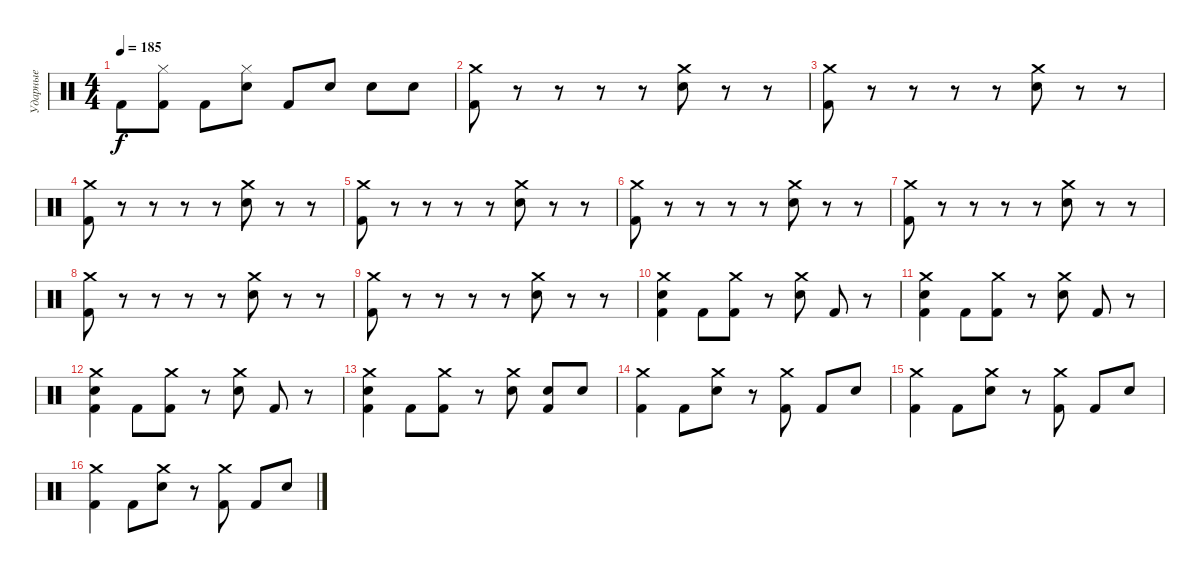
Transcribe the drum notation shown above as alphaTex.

\track ("Ударные" "Ударные") {instrument percussion}
\staff {score}
\articulation defaults
\ts (4 4)
\tempo 185
\clef neutral
\ks c "Kick (hit) 2".8{dy f}
("Hi-Hat (closed)" "Kick (hit) 2"{t}).8 "Kick (hit) 2".8 ("Hi-Hat (closed)" "Electric Snare (hit)").8 "Kick (hit) 2".8 "Electric Snare (hit)".8 "Electric Snare (hit)".8 "Electric Snare (hit)".8 |
("Crash medium (hit)" "Kick (hit) 2").8 r.8 r.8 r.8 r.8 ("Crash medium (hit)" "Electric Snare (hit)").8 r.8 r.8 |
("Crash medium (hit)" "Kick (hit) 2").8 r.8 r.8 r.8 r.8 ("Crash medium (hit)" "Electric Snare (hit)").8 r.8 r.8 |
("Crash medium (hit)" "Kick (hit) 2").8 r.8 r.8 r.8 r.8 ("Crash medium (hit)" "Electric Snare (hit)").8 r.8 r.8 |
("Crash medium (hit)" "Kick (hit) 2").8 r.8 r.8 r.8 r.8 ("Crash medium (hit)" "Electric Snare (hit)").8 r.8 r.8 |
("Crash medium (hit)" "Kick (hit) 2").8 r.8 r.8 r.8 r.8 ("Crash medium (hit)" "Electric Snare (hit)").8 r.8 r.8 |
("Crash medium (hit)" "Kick (hit) 2").8 r.8 r.8 r.8 r.8 ("Crash medium (hit)" "Electric Snare (hit)").8 r.8 r.8 |
("Crash medium (hit)" "Kick (hit) 2").8 r.8 r.8 r.8 r.8 ("Crash medium (hit)" "Electric Snare (hit)").8 r.8 r.8 |
("Crash medium (hit)" "Kick (hit) 2").8 r.8 r.8 r.8 r.8 ("Crash medium (hit)" "Electric Snare (hit)").8 r.8 r.8 |
("Crash medium (hit)" "Electric Snare (hit)" "Kick (hit) 2").4 "Kick (hit) 2".8 ("Crash medium (hit)" "Kick (hit) 2").8 r.8 ("Crash medium (hit)" "Electric Snare (hit)").8 "Kick (hit) 2".8 r.8 |
("Crash medium (hit)" "Electric Snare (hit)" "Kick (hit) 2").4 "Kick (hit) 2".8 ("Crash medium (hit)" "Kick (hit) 2").8 r.8 ("Crash medium (hit)" "Electric Snare (hit)").8 "Kick (hit) 2".8 r.8 |
("Crash medium (hit)" "Electric Snare (hit)" "Kick (hit) 2").4 "Kick (hit) 2".8 ("Crash medium (hit)" "Kick (hit) 2").8 r.8 ("Crash medium (hit)" "Electric Snare (hit)").8 "Kick (hit) 2".8 r.8 |
("Crash medium (hit)" "Electric Snare (hit)" "Kick (hit) 2").4 "Kick (hit) 2".8 ("Crash medium (hit)" "Kick (hit) 2").8 r.8 ("Crash medium (hit)" "Electric Snare (hit)").8 ("Electric Snare (hit)" "Kick (hit) 2").8 "Electric Snare (hit)".8 |
("Crash medium (hit)" "Kick (hit) 2").4 "Kick (hit) 2".8 ("Crash medium (hit)" "Electric Snare (hit)").8 r.8 ("Crash medium (hit)" "Kick (hit) 2").8 "Kick (hit) 2".8 "Electric Snare (hit)".8 |
("Crash medium (hit)" "Kick (hit) 2").4 "Kick (hit) 2".8 ("Crash medium (hit)" "Electric Snare (hit)").8 r.8 ("Crash medium (hit)" "Kick (hit) 2").8 "Kick (hit) 2".8 "Electric Snare (hit)".8 |
("Crash medium (hit)" "Kick (hit) 2").4 "Kick (hit) 2".8 ("Crash medium (hit)" "Electric Snare (hit)").8 r.8 ("Crash medium (hit)" "Kick (hit) 2").8 "Kick (hit) 2".8 "Electric Snare (hit)".8
